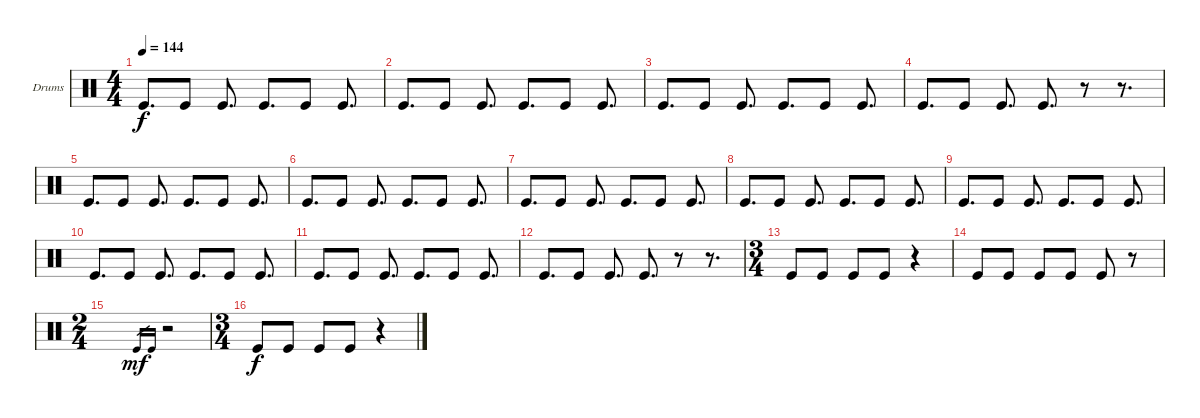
\defaultSystemsLayout 4
\bracketExtendMode groupsimilarinstruments
\firstSystemTrackNameOrientation horizontal
\otherSystemsTrackNameOrientation horizontal
\track ("Kick" "Drums") {instrument percussion}
\staff {score}
\articulation defaults
\ts (4 4)
\tempo 144
\clef neutral
\ks c "Kick (hit)".8{d dy f} "Kick (hit)".8 "Kick (hit)".8{d} "Kick (hit)".8{d} "Kick (hit)".8 "Kick (hit)".8{d}
|
"Kick (hit)".8{d} "Kick (hit)".8 "Kick (hit)".8{d} "Kick (hit)".8{d} "Kick (hit)".8 "Kick (hit)".8{d} |
"Kick (hit)".8{d} "Kick (hit)".8 "Kick (hit)".8{d} "Kick (hit)".8{d} "Kick (hit)".8 "Kick (hit)".8{d} |
"Kick (hit)".8{d} "Kick (hit)".8 "Kick (hit)".8{d} "Kick (hit)".8{d} r.8 r.8{d} |
"Kick (hit)".8{d} "Kick (hit)".8 "Kick (hit)".8{d} "Kick (hit)".8{d} "Kick (hit)".8 "Kick (hit)".8{d} |
"Kick (hit)".8{d} "Kick (hit)".8 "Kick (hit)".8{d} "Kick (hit)".8{d} "Kick (hit)".8 "Kick (hit)".8{d} |
"Kick (hit)".8{d} "Kick (hit)".8 "Kick (hit)".8{d} "Kick (hit)".8{d} "Kick (hit)".8 "Kick (hit)".8{d} |
"Kick (hit)".8{d} "Kick (hit)".8 "Kick (hit)".8{d} "Kick (hit)".8{d} "Kick (hit)".8 "Kick (hit)".8{d} |
"Kick (hit)".8{d} "Kick (hit)".8 "Kick (hit)".8{d} "Kick (hit)".8{d} "Kick (hit)".8 "Kick (hit)".8{d} |
"Kick (hit)".8{d} "Kick (hit)".8 "Kick (hit)".8{d} "Kick (hit)".8{d} "Kick (hit)".8 "Kick (hit)".8{d} |
"Kick (hit)".8{d} "Kick (hit)".8 "Kick (hit)".8{d} "Kick (hit)".8{d} "Kick (hit)".8 "Kick (hit)".8{d} |
"Kick (hit)".8{d} "Kick (hit)".8 "Kick (hit)".8{d} "Kick (hit)".8{d} r.8 r.8{d} |
\ts (3 4)
"Kick (hit)".8 "Kick (hit)".8 "Kick (hit)".8 "Kick (hit)".8 r.4 |
"Kick (hit)".8 "Kick (hit)".8 "Kick (hit)".8 "Kick (hit)".8 "Kick (hit)".8 r.8 |
\ts (2 4)
"Kick (hit)".16{gr dy mf} "Kick (hit)".16{gr} r.2 |
\ts (3 4)
"Kick (hit)".8{dy f} "Kick (hit)".8 "Kick (hit)".8 "Kick (hit)".8 r.4
